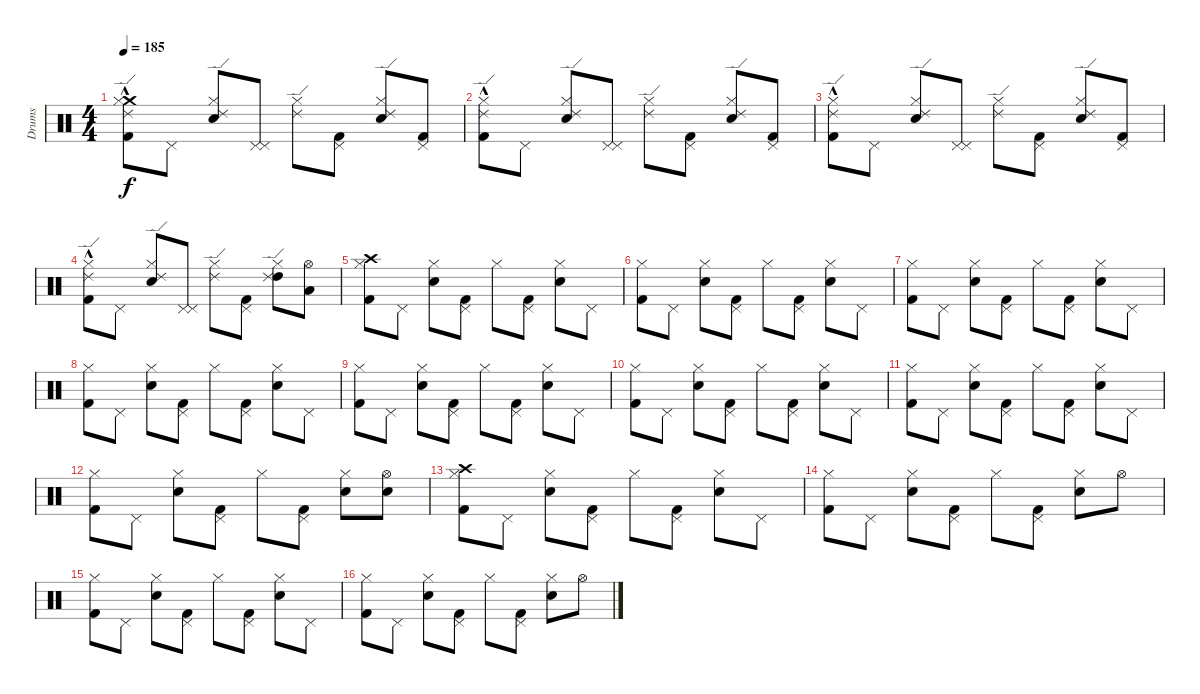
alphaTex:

\track ("Drums" "Drums") {instrument percussion}
\staff {score}
\articulation defaults
\ts (4 4)
\tempo 185
\clef neutral
\ks c
("Kick (hit) 2"{hac} "Crash medium (hit)" "Ride (edge) 2"{hac} "Hi-Hat (closed)").8{dy f} "Pedal Hi-Hat (hit)".8 ("Electric Snare (hit)" "Ride (edge) 2" "Hi-Hat (closed)").8 ("Pedal Hi-Hat (hit)" "Pedal Hi-Hat (hit)").8 ("Ride (edge) 2" "Hi-Hat (closed)").8 ("Kick (hit) 2" "Pedal Hi-Hat (hit)").8 ("Electric Snare (hit)" "Ride (edge) 2" "Hi-Hat (closed)").8 ("Kick (hit) 2" "Pedal Hi-Hat (hit)").8 |
("Kick (hit) 2"{hac} "Ride (edge) 2"{hac} "Hi-Hat (closed)").8 "Pedal Hi-Hat (hit)".8 ("Electric Snare (hit)" "Ride (edge) 2" "Hi-Hat (closed)").8 ("Pedal Hi-Hat (hit)" "Pedal Hi-Hat (hit)").8 ("Ride (edge) 2" "Hi-Hat (closed)").8 ("Kick (hit) 2" "Pedal Hi-Hat (hit)").8 ("Electric Snare (hit)" "Ride (edge) 2" "Hi-Hat (closed)").8 ("Kick (hit) 2" "Pedal Hi-Hat (hit)").8 |
("Kick (hit) 2"{hac} "Ride (edge) 2"{hac} "Hi-Hat (closed)").8 "Pedal Hi-Hat (hit)".8 ("Electric Snare (hit)" "Ride (edge) 2" "Hi-Hat (closed)").8 ("Pedal Hi-Hat (hit)" "Pedal Hi-Hat (hit)").8 ("Ride (edge) 2" "Hi-Hat (closed)").8 ("Kick (hit) 2" "Pedal Hi-Hat (hit)").8 ("Electric Snare (hit)" "Ride (edge) 2" "Hi-Hat (closed)").8 ("Kick (hit) 2" "Pedal Hi-Hat (hit)").8 |
("Kick (hit) 2"{hac} "Ride (edge) 2"{hac} "Hi-Hat (closed)").8 "Pedal Hi-Hat (hit)".8 ("Electric Snare (hit)" "Ride (edge) 2" "Hi-Hat (closed)").8 ("Pedal Hi-Hat (hit)" "Pedal Hi-Hat (hit)").8 ("Ride (edge) 2" "Hi-Hat (closed)").8 ("Kick (hit) 2" "Pedal Hi-Hat (hit)").8 ("High Tom (hit)" "Ride (edge) 2" "Hi-Hat (closed)").8 ("Low Tom (hit)" "Hi-Hat (open)").8 |
("Kick (hit) 2" "Crash high (hit)" "Hi-Hat (closed)").8 "Pedal Hi-Hat (hit)".8 ("Electric Snare (hit)" "Hi-Hat (closed)").8 ("Kick (hit) 2" "Pedal Hi-Hat (hit)").8 "Hi-Hat (closed)".8 ("Kick (hit) 2" "Pedal Hi-Hat (hit)").8 ("Electric Snare (hit)" "Hi-Hat (closed)").8 "Pedal Hi-Hat (hit)".8 |
("Kick (hit) 2" "Hi-Hat (closed)").8 "Pedal Hi-Hat (hit)".8 ("Electric Snare (hit)" "Hi-Hat (closed)").8 ("Kick (hit) 2" "Pedal Hi-Hat (hit)").8 "Hi-Hat (closed)".8 ("Kick (hit) 2" "Pedal Hi-Hat (hit)").8 ("Electric Snare (hit)" "Hi-Hat (closed)").8 "Pedal Hi-Hat (hit)".8 |
("Kick (hit) 2" "Hi-Hat (closed)").8 "Pedal Hi-Hat (hit)".8 ("Electric Snare (hit)" "Hi-Hat (closed)").8 ("Kick (hit) 2" "Pedal Hi-Hat (hit)").8 "Hi-Hat (closed)".8 ("Kick (hit) 2" "Pedal Hi-Hat (hit)").8 ("Electric Snare (hit)" "Hi-Hat (closed)").8 "Pedal Hi-Hat (hit)".8 |
("Kick (hit) 2" "Hi-Hat (closed)").8 "Pedal Hi-Hat (hit)".8 ("Electric Snare (hit)" "Hi-Hat (closed)").8 ("Kick (hit) 2" "Pedal Hi-Hat (hit)").8 "Hi-Hat (closed)".8 ("Kick (hit) 2" "Pedal Hi-Hat (hit)").8 ("Electric Snare (hit)" "Hi-Hat (closed)").8 "Pedal Hi-Hat (hit)".8 |
("Kick (hit) 2" "Hi-Hat (closed)").8 "Pedal Hi-Hat (hit)".8 ("Electric Snare (hit)" "Hi-Hat (closed)").8 ("Kick (hit) 2" "Pedal Hi-Hat (hit)").8 "Hi-Hat (closed)".8 ("Kick (hit) 2" "Pedal Hi-Hat (hit)").8 ("Electric Snare (hit)" "Hi-Hat (closed)").8 "Pedal Hi-Hat (hit)".8 |
("Kick (hit) 2" "Hi-Hat (closed)").8 "Pedal Hi-Hat (hit)".8 ("Electric Snare (hit)" "Hi-Hat (closed)").8 ("Kick (hit) 2" "Pedal Hi-Hat (hit)").8 "Hi-Hat (closed)".8 ("Kick (hit) 2" "Pedal Hi-Hat (hit)").8 ("Electric Snare (hit)" "Hi-Hat (closed)").8 "Pedal Hi-Hat (hit)".8 |
("Kick (hit) 2" "Hi-Hat (closed)").8 "Pedal Hi-Hat (hit)".8 ("Electric Snare (hit)" "Hi-Hat (closed)").8 ("Kick (hit) 2" "Pedal Hi-Hat (hit)").8 "Hi-Hat (closed)".8 ("Kick (hit) 2" "Pedal Hi-Hat (hit)").8 ("Electric Snare (hit)" "Hi-Hat (closed)").8 "Pedal Hi-Hat (hit)".8 |
("Kick (hit) 2" "Hi-Hat (closed)").8 "Pedal Hi-Hat (hit)".8 ("Electric Snare (hit)" "Hi-Hat (closed)").8 ("Kick (hit) 2" "Pedal Hi-Hat (hit)").8 "Hi-Hat (closed)".8 ("Kick (hit) 2" "Pedal Hi-Hat (hit)").8 ("Electric Snare (hit)" "Hi-Hat (closed)").8 ("Electric Snare (hit)" "Hi-Hat (open)").8 |
("Kick (hit) 2" "Crash high (hit)" "Hi-Hat (closed)").8 "Pedal Hi-Hat (hit)".8 ("Electric Snare (hit)" "Hi-Hat (closed)").8 ("Kick (hit) 2" "Pedal Hi-Hat (hit)").8 "Hi-Hat (closed)".8 ("Kick (hit) 2" "Pedal Hi-Hat (hit)").8 ("Electric Snare (hit)" "Hi-Hat (closed)").8 "Pedal Hi-Hat (hit)".8 |
("Kick (hit) 2" "Hi-Hat (closed)").8 "Pedal Hi-Hat (hit)".8 ("Electric Snare (hit)" "Hi-Hat (closed)").8 ("Kick (hit) 2" "Pedal Hi-Hat (hit)").8 "Hi-Hat (closed)".8 ("Kick (hit) 2" "Pedal Hi-Hat (hit)").8 ("Electric Snare (hit)" "Hi-Hat (closed)").8 "Hi-Hat (open)".8 |
("Kick (hit) 2" "Hi-Hat (closed)").8 "Pedal Hi-Hat (hit)".8 ("Electric Snare (hit)" "Hi-Hat (closed)").8 ("Kick (hit) 2" "Pedal Hi-Hat (hit)").8 "Hi-Hat (closed)".8 ("Kick (hit) 2" "Pedal Hi-Hat (hit)").8 ("Electric Snare (hit)" "Hi-Hat (closed)").8 "Pedal Hi-Hat (hit)".8 |
("Kick (hit) 2" "Hi-Hat (closed)").8 "Pedal Hi-Hat (hit)".8 ("Electric Snare (hit)" "Hi-Hat (closed)").8 ("Kick (hit) 2" "Pedal Hi-Hat (hit)").8 "Hi-Hat (closed)".8 ("Kick (hit) 2" "Pedal Hi-Hat (hit)").8 ("Electric Snare (hit)" "Hi-Hat (closed)").8 "Hi-Hat (open)".8
